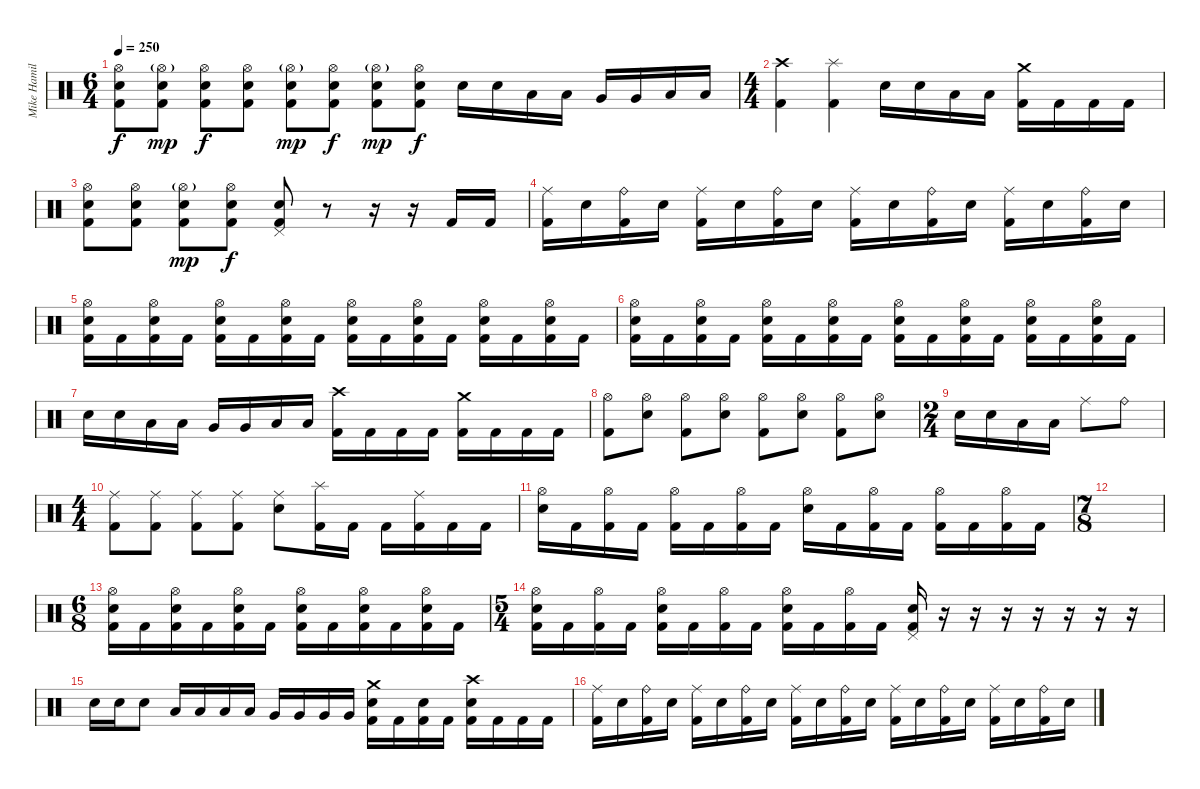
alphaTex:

\track ("Mike Hamilton" "Mike Hamil") {instrument percussion}
\staff {score}
\articulation defaults
\ts (6 4)
\tempo 250
\clef neutral
\ks c
("Hi-Hat (open)" "Electric Snare (hit)" "Kick (hit) 2").8{dy f} ("Hi-Hat (open)"{g} "Electric Snare (hit)" "Kick (hit) 2").8{dy mp} ("Hi-Hat (open)" "Electric Snare (hit)" "Kick (hit) 2").8{dy f} ("Hi-Hat (open)" "Electric Snare (hit)" "Kick (hit) 2").8 ("Hi-Hat (open)"{g} "Electric Snare (hit)" "Kick (hit) 2").8{dy mp} ("Hi-Hat (open)" "Electric Snare (hit)" "Kick (hit) 2").8{dy f} ("Hi-Hat (open)"{g} "Electric Snare (hit)" "Kick (hit) 2").8{dy mp} ("Hi-Hat (open)" "Electric Snare (hit)" "Kick (hit) 2").8{dy f} "Electric Snare (hit)".16 "Electric Snare (hit)".16 "Low Tom (hit)".16 "Low Tom (hit)".16 "Very Low Tom (hit)".16 "Very Low Tom (hit)".16 "Low Floor Tom (hit)".16 "Low Floor Tom (hit)".16 |
\ts (4 4)
("Crash high (hit)" "Kick (hit) 2").4 ("Splash (hit)" "Kick (hit) 2").4 "Electric Snare (hit)".16 "Electric Snare (hit)".16 "Low Tom (hit)".16 "Low Tom (hit)".16 ("Crash medium (hit)" "Kick (hit) 2").16 "Kick (hit) 2".16 "Kick (hit) 2".16 "Kick (hit) 2".16 |
("Hi-Hat (open)" "Electric Snare (hit)" "Kick (hit) 2").8 ("Hi-Hat (open)" "Electric Snare (hit)" "Kick (hit) 2").8 ("Hi-Hat (open)"{g} "Electric Snare (hit)" "Kick (hit) 2").8{dy mp} ("Hi-Hat (open)" "Electric Snare (hit)" "Kick (hit) 2").8{dy f} ("Pedal Hi-Hat (hit)" "Electric Snare (hit)" "Kick (hit) 2").8 r.8 r.16 r.16 "Kick (hit) 2".16 "Kick (hit) 2".16 |
("Ride (middle)" "Kick (hit) 2").16 "Electric Snare (hit)".16 ("Ride (bell)" "Kick (hit) 2").16 "Electric Snare (hit)".16 ("Ride (middle)" "Kick (hit) 2").16 "Electric Snare (hit)".16 ("Ride (bell)" "Kick (hit) 2").16 "Electric Snare (hit)".16 ("Ride (middle)" "Kick (hit) 2").16 "Electric Snare (hit)".16 ("Ride (bell)" "Kick (hit) 2").16 "Electric Snare (hit)".16 ("Ride (middle)" "Kick (hit) 2").16 "Electric Snare (hit)".16 ("Ride (bell)" "Kick (hit) 2").16 "Electric Snare (hit)".16 |
("Hi-Hat (open)" "Electric Snare (hit)" "Kick (hit) 2").16 "Kick (hit) 2".16 ("Hi-Hat (open)" "Electric Snare (hit)" "Kick (hit) 2").16 "Kick (hit) 2".16 ("Hi-Hat (open)" "Electric Snare (hit)" "Kick (hit) 2").16 "Kick (hit) 2".16 ("Hi-Hat (open)" "Electric Snare (hit)" "Kick (hit) 2").16 "Kick (hit) 2".16 ("Hi-Hat (open)" "Electric Snare (hit)" "Kick (hit) 2").16 "Kick (hit) 2".16 ("Hi-Hat (open)" "Electric Snare (hit)" "Kick (hit) 2").16 "Kick (hit) 2".16 ("Hi-Hat (open)" "Electric Snare (hit)" "Kick (hit) 2").16 "Kick (hit) 2".16 ("Hi-Hat (open)" "Electric Snare (hit)" "Kick (hit) 2").16 "Kick (hit) 2".16 |
("Hi-Hat (open)" "Electric Snare (hit)" "Kick (hit) 2").16 "Kick (hit) 2".16 ("Hi-Hat (open)" "Electric Snare (hit)" "Kick (hit) 2").16 "Kick (hit) 2".16 ("Hi-Hat (open)" "Electric Snare (hit)" "Kick (hit) 2").16 "Kick (hit) 2".16 ("Hi-Hat (open)" "Electric Snare (hit)" "Kick (hit) 2").16 "Kick (hit) 2".16 ("Hi-Hat (open)" "Electric Snare (hit)" "Kick (hit) 2").16 "Kick (hit) 2".16 ("Hi-Hat (open)" "Electric Snare (hit)" "Kick (hit) 2").16 "Kick (hit) 2".16 ("Hi-Hat (open)" "Electric Snare (hit)" "Kick (hit) 2").16 "Kick (hit) 2".16 ("Hi-Hat (open)" "Electric Snare (hit)" "Kick (hit) 2").16 "Kick (hit) 2".16 |
"Electric Snare (hit)".16 "Electric Snare (hit)".16 "Low Tom (hit)".16 "Low Tom (hit)".16 "Very Low Tom (hit)".16 "Very Low Tom (hit)".16 "Low Floor Tom (hit)".16 "Low Floor Tom (hit)".16 ("Crash high (hit)" "Kick (hit) 2").16 "Kick (hit) 2".16 "Kick (hit) 2".16 "Kick (hit) 2".16 ("Crash medium (hit)" "Kick (hit) 2").16 "Kick (hit) 2".16 "Kick (hit) 2".16 "Kick (hit) 2".16 |
("Hi-Hat (open)" "Kick (hit) 2").8 ("Hi-Hat (open)" "Electric Snare (hit)").8 ("Hi-Hat (open)" "Kick (hit) 2").8 ("Hi-Hat (open)" "Electric Snare (hit)").8 ("Hi-Hat (open)" "Kick (hit) 2").8 ("Hi-Hat (open)" "Electric Snare (hit)").8 ("Hi-Hat (open)" "Kick (hit) 2").8 ("Hi-Hat (open)" "Electric Snare (hit)").8 |
\ts (2 4)
"Electric Snare (hit)".16 "Electric Snare (hit)".16 "Low Tom (hit)".16 "Low Tom (hit)".16 "Ride (middle)".8 "Ride (bell)".8 |
\ts (4 4)
("Ride (middle)" "Kick (hit) 2").8 ("Ride (middle)" "Kick (hit) 2").8 ("Ride (middle)" "Kick (hit) 2").8 ("Ride (middle)" "Kick (hit) 2").8 ("Ride (middle)" "Electric Snare (hit)").8 ("Splash (hit)" "Kick (hit) 2").16 "Kick (hit) 2".16 "Kick (hit) 2".16 ("Ride (middle)" "Kick (hit) 2").16 "Kick (hit) 2".16 "Kick (hit) 2".16 |
("Hi-Hat (open)" "Electric Snare (hit)").16 "Kick (hit) 2".16 ("Hi-Hat (open)" "Kick (hit) 2").16 "Kick (hit) 2".16 ("Hi-Hat (open)" "Kick (hit) 2").16 "Kick (hit) 2".16 ("Hi-Hat (open)" "Kick (hit) 2").16 "Kick (hit) 2".16 ("Hi-Hat (open)" "Electric Snare (hit)").16 "Kick (hit) 2".16 ("Hi-Hat (open)" "Kick (hit) 2").16 "Kick (hit) 2".16 ("Hi-Hat (open)" "Kick (hit) 2").16 "Kick (hit) 2".16 ("Hi-Hat (open)" "Kick (hit) 2").16 "Kick (hit) 2".16 |
\ts (7 8)
|
\ts (6 8)
("Hi-Hat (open)" "Electric Snare (hit)" "Kick (hit) 2").16 "Kick (hit) 2".16 ("Hi-Hat (open)" "Electric Snare (hit)" "Kick (hit) 2").16 "Kick (hit) 2".16 ("Hi-Hat (open)" "Electric Snare (hit)" "Kick (hit) 2").16 "Kick (hit) 2".16 ("Hi-Hat (open)" "Electric Snare (hit)" "Kick (hit) 2").16 "Kick (hit) 2".16 ("Hi-Hat (open)" "Electric Snare (hit)" "Kick (hit) 2").16 "Kick (hit) 2".16 ("Hi-Hat (open)" "Electric Snare (hit)" "Kick (hit) 2").16 "Kick (hit) 2".16 |
\ts (5 4)
("Hi-Hat (open)" "Electric Snare (hit)" "Kick (hit) 2").16 "Kick (hit) 2".16 ("Hi-Hat (open)" "Kick (hit) 2").16 "Kick (hit) 2".16 ("Hi-Hat (open)" "Electric Snare (hit)" "Kick (hit) 2").16 "Kick (hit) 2".16 ("Hi-Hat (open)" "Kick (hit) 2").16 "Kick (hit) 2".16 ("Hi-Hat (open)" "Electric Snare (hit)" "Kick (hit) 2").16 "Kick (hit) 2".16 ("Hi-Hat (open)" "Kick (hit) 2").16 "Kick (hit) 2".16 ("Pedal Hi-Hat (hit)" "Electric Snare (hit)" "Kick (hit) 2").16 r.16 r.16 r.16 r.16 r.16 r.16 r.16 |
"Electric Snare (hit)".16 "Electric Snare (hit)".16 "Electric Snare (hit)".8 "Low Tom (hit)".16 "Low Tom (hit)".16 "Low Tom (hit)".16 "Low Tom (hit)".16 "Very Low Tom (hit)".16 "Very Low Tom (hit)".16 "Very Low Tom (hit)".16 "Very Low Tom (hit)".16 ("Crash medium (hit)" "Electric Snare (hit)" "Kick (hit) 2").16 "Kick (hit) 2".16 ("Electric Snare (hit)" "Kick (hit) 2").16 "Kick (hit) 2".16 ("Crash high (hit)" "Electric Snare (hit)" "Kick (hit) 2").16 "Kick (hit) 2".16 "Kick (hit) 2".16 "Kick (hit) 2".16 |
("Ride (middle)" "Kick (hit) 2").16 "Electric Snare (hit)".16 ("Ride (bell)" "Kick (hit) 2").16 "Electric Snare (hit)".16 ("Ride (middle)" "Kick (hit) 2").16 "Electric Snare (hit)".16 ("Ride (bell)" "Kick (hit) 2").16 "Electric Snare (hit)".16 ("Ride (middle)" "Kick (hit) 2").16 "Electric Snare (hit)".16 ("Ride (bell)" "Kick (hit) 2").16 "Electric Snare (hit)".16 ("Ride (middle)" "Kick (hit) 2").16 "Electric Snare (hit)".16 ("Ride (bell)" "Kick (hit) 2").16 "Electric Snare (hit)".16 ("Ride (middle)" "Kick (hit) 2").16 "Electric Snare (hit)".16 ("Ride (bell)" "Kick (hit) 2").16 "Electric Snare (hit)".16
